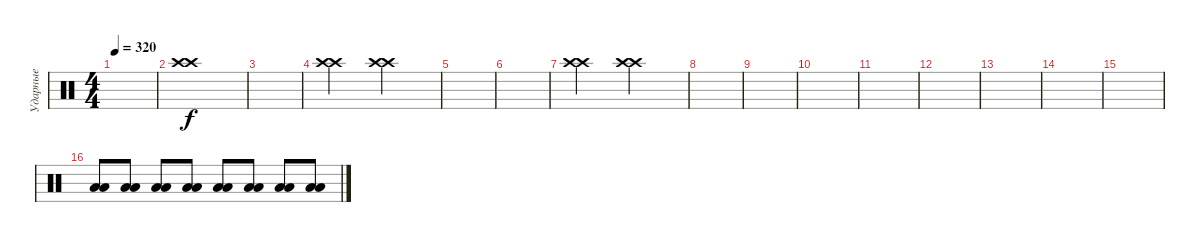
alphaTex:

\track ("Ударные" "Ударные") {instrument percussion}
\staff {score}
\articulation defaults
\ts (4 4)
\tempo 320
\clef neutral
\ks c
|
("Crash high (hit)" "Crash high (hit)").1 |
|
("Crash high (hit)" "Crash high (hit)").2 ("Crash high (hit)" "Crash high (hit)").2 |
|
|
("Crash high (hit)" "Crash high (hit)").2 ("Crash high (hit)" "Crash high (hit)").2 |
|
|
|
|
|
|
|
|
("Low Floor Tom (hit)" "Low Floor Tom (hit)").8 ("Low Floor Tom (hit)" "Low Floor Tom (hit)").8 ("Low Floor Tom (hit)" "Low Floor Tom (hit)").8 ("Low Floor Tom (hit)" "Low Floor Tom (hit)").8 ("Low Floor Tom (hit)" "Low Floor Tom (hit)").8 ("Low Floor Tom (hit)" "Low Floor Tom (hit)").8 ("Low Floor Tom (hit)" "Low Floor Tom (hit)").8 ("Low Floor Tom (hit)" "Low Floor Tom (hit)").8
